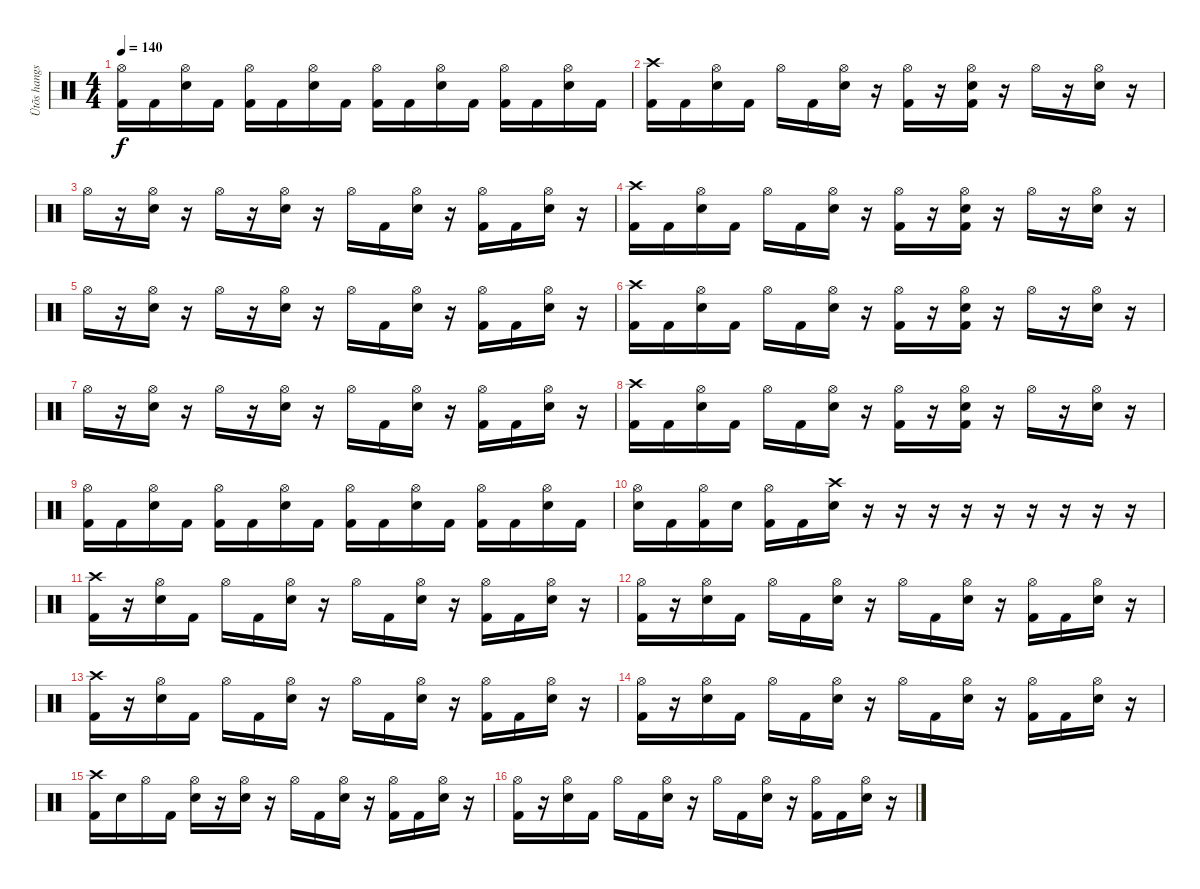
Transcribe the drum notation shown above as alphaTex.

\track ("Ütõs hangszer" "Ütõs hangs") {instrument percussion}
\staff {score}
\articulation defaults
\ts (4 4)
\tempo 140
\clef neutral
\ks c
("Hi-Hat (open)" "Kick (hit) 2").16{dy f} "Kick (hit) 2".16 ("Hi-Hat (open)" "Snare (hit) 2").16 "Kick (hit) 2".16 ("Hi-Hat (open)" "Kick (hit) 2").16 "Kick (hit) 2".16 ("Hi-Hat (open)" "Snare (hit) 2").16 "Kick (hit) 2".16 ("Hi-Hat (open)" "Kick (hit) 2").16 "Kick (hit) 2".16 ("Hi-Hat (open)" "Snare (hit) 2").16 "Kick (hit) 2".16 ("Hi-Hat (open)" "Kick (hit) 2").16 "Kick (hit) 2".16 ("Hi-Hat (open)" "Snare (hit) 2").16 "Kick (hit) 2".16 |
("Crash high (hit)" "Kick (hit) 2").16 "Kick (hit) 2".16 ("Hi-Hat (open)" "Snare (hit) 2").16 "Kick (hit) 2".16 "Hi-Hat (open)".16 "Kick (hit) 2".16 ("Hi-Hat (open)" "Snare (hit) 2").16 r.16 ("Hi-Hat (open)" "Kick (hit) 2").16 r.16 ("Hi-Hat (open)" "Snare (hit) 2" "Kick (hit) 2").16 r.16 "Hi-Hat (open)".16 r.16 ("Hi-Hat (open)" "Snare (hit) 2").16 r.16 |
"Hi-Hat (open)".16 r.16 ("Hi-Hat (open)" "Snare (hit) 2").16 r.16 "Hi-Hat (open)".16 r.16 ("Hi-Hat (open)" "Snare (hit) 2").16 r.16 "Hi-Hat (open)".16 "Kick (hit) 2".16 ("Hi-Hat (open)" "Snare (hit) 2").16 r.16 ("Hi-Hat (open)" "Kick (hit) 2").16 "Kick (hit) 2".16 ("Hi-Hat (open)" "Snare (hit) 2").16 r.16 |
("Crash high (hit)" "Kick (hit) 2").16 "Kick (hit) 2".16 ("Hi-Hat (open)" "Snare (hit) 2").16 "Kick (hit) 2".16 "Hi-Hat (open)".16 "Kick (hit) 2".16 ("Hi-Hat (open)" "Snare (hit) 2").16 r.16 ("Hi-Hat (open)" "Kick (hit) 2").16 r.16 ("Hi-Hat (open)" "Snare (hit) 2" "Kick (hit) 2").16 r.16 "Hi-Hat (open)".16 r.16 ("Hi-Hat (open)" "Snare (hit) 2").16 r.16 |
"Hi-Hat (open)".16 r.16 ("Hi-Hat (open)" "Snare (hit) 2").16 r.16 "Hi-Hat (open)".16 r.16 ("Hi-Hat (open)" "Snare (hit) 2").16 r.16 "Hi-Hat (open)".16 "Kick (hit) 2".16 ("Hi-Hat (open)" "Snare (hit) 2").16 r.16 ("Hi-Hat (open)" "Kick (hit) 2").16 "Kick (hit) 2".16 ("Hi-Hat (open)" "Snare (hit) 2").16 r.16 |
("Crash high (hit)" "Kick (hit) 2").16 "Kick (hit) 2".16 ("Hi-Hat (open)" "Snare (hit) 2").16 "Kick (hit) 2".16 "Hi-Hat (open)".16 "Kick (hit) 2".16 ("Hi-Hat (open)" "Snare (hit) 2").16 r.16 ("Hi-Hat (open)" "Kick (hit) 2").16 r.16 ("Hi-Hat (open)" "Snare (hit) 2" "Kick (hit) 2").16 r.16 "Hi-Hat (open)".16 r.16 ("Hi-Hat (open)" "Snare (hit) 2").16 r.16 |
"Hi-Hat (open)".16 r.16 ("Hi-Hat (open)" "Snare (hit) 2").16 r.16 "Hi-Hat (open)".16 r.16 ("Hi-Hat (open)" "Snare (hit) 2").16 r.16 "Hi-Hat (open)".16 "Kick (hit) 2".16 ("Hi-Hat (open)" "Snare (hit) 2").16 r.16 ("Hi-Hat (open)" "Kick (hit) 2").16 "Kick (hit) 2".16 ("Hi-Hat (open)" "Snare (hit) 2").16 r.16 |
("Crash high (hit)" "Kick (hit) 2").16 "Kick (hit) 2".16 ("Hi-Hat (open)" "Snare (hit) 2").16 "Kick (hit) 2".16 "Hi-Hat (open)".16 "Kick (hit) 2".16 ("Hi-Hat (open)" "Snare (hit) 2").16 r.16 ("Hi-Hat (open)" "Kick (hit) 2").16 r.16 ("Hi-Hat (open)" "Snare (hit) 2" "Kick (hit) 2").16 r.16 "Hi-Hat (open)".16 r.16 ("Hi-Hat (open)" "Snare (hit) 2").16 r.16 |
("Hi-Hat (open)" "Kick (hit) 2").16 "Kick (hit) 2".16 ("Hi-Hat (open)" "Snare (hit) 2").16 "Kick (hit) 2".16 ("Hi-Hat (open)" "Kick (hit) 2").16 "Kick (hit) 2".16 ("Hi-Hat (open)" "Snare (hit) 2").16 "Kick (hit) 2".16 ("Hi-Hat (open)" "Kick (hit) 2").16 "Kick (hit) 2".16 ("Hi-Hat (open)" "Snare (hit) 2").16 "Kick (hit) 2".16 ("Hi-Hat (open)" "Kick (hit) 2").16 "Kick (hit) 2".16 ("Hi-Hat (open)" "Snare (hit) 2").16 "Kick (hit) 2".16 |
("Hi-Hat (open)" "Snare (hit) 2").16 "Kick (hit) 2".16 ("Hi-Hat (open)" "Kick (hit) 2").16 "Snare (hit) 2".16 ("Hi-Hat (open)" "Kick (hit) 2").16 "Kick (hit) 2".16 ("Crash high (hit)" "Snare (hit) 2").16 r.16 r.16 r.16 r.16 r.16 r.16 r.16 r.16 r.16 |
("Crash high (hit)" "Kick (hit) 2").16 r.16 ("Hi-Hat (open)" "Snare (hit) 2").16 "Kick (hit) 2".16 "Hi-Hat (open)".16 "Kick (hit) 2".16 ("Hi-Hat (open)" "Snare (hit) 2").16 r.16 "Hi-Hat (open)".16 "Kick (hit) 2".16 ("Hi-Hat (open)" "Snare (hit) 2").16 r.16 ("Hi-Hat (open)" "Kick (hit) 2").16 "Kick (hit) 2".16 ("Hi-Hat (open)" "Snare (hit) 2").16 r.16 |
("Hi-Hat (open)" "Kick (hit) 2").16 r.16 ("Hi-Hat (open)" "Snare (hit) 2").16 "Kick (hit) 2".16 "Hi-Hat (open)".16 "Kick (hit) 2".16 ("Hi-Hat (open)" "Snare (hit) 2").16 r.16 "Hi-Hat (open)".16 "Kick (hit) 2".16 ("Hi-Hat (open)" "Snare (hit) 2").16 r.16 ("Hi-Hat (open)" "Kick (hit) 2").16 "Kick (hit) 2".16 ("Hi-Hat (open)" "Snare (hit) 2").16 r.16 |
("Crash high (hit)" "Kick (hit) 2").16 r.16 ("Hi-Hat (open)" "Snare (hit) 2").16 "Kick (hit) 2".16 "Hi-Hat (open)".16 "Kick (hit) 2".16 ("Hi-Hat (open)" "Snare (hit) 2").16 r.16 "Hi-Hat (open)".16 "Kick (hit) 2".16 ("Hi-Hat (open)" "Snare (hit) 2").16 r.16 ("Hi-Hat (open)" "Kick (hit) 2").16 "Kick (hit) 2".16 ("Hi-Hat (open)" "Snare (hit) 2").16 r.16 |
("Hi-Hat (open)" "Kick (hit) 2").16 r.16 ("Hi-Hat (open)" "Snare (hit) 2").16 "Kick (hit) 2".16 "Hi-Hat (open)".16 "Kick (hit) 2".16 ("Hi-Hat (open)" "Snare (hit) 2").16 r.16 "Hi-Hat (open)".16 "Kick (hit) 2".16 ("Hi-Hat (open)" "Snare (hit) 2").16 r.16 ("Hi-Hat (open)" "Kick (hit) 2").16 "Kick (hit) 2".16 ("Hi-Hat (open)" "Snare (hit) 2").16 r.16 |
("Crash high (hit)" "Kick (hit) 2").16 "Snare (hit) 2".16 "Hi-Hat (open)".16 "Kick (hit) 2".16 ("Hi-Hat (open)" "Snare (hit) 2").16 r.16 ("Hi-Hat (open)" "Snare (hit) 2").16 r.16 "Hi-Hat (open)".16 "Kick (hit) 2".16 ("Hi-Hat (open)" "Snare (hit) 2").16 r.16 ("Hi-Hat (open)" "Kick (hit) 2").16 "Kick (hit) 2".16 ("Hi-Hat (open)" "Snare (hit) 2").16 r.16 |
("Hi-Hat (open)" "Kick (hit) 2").16 r.16 ("Hi-Hat (open)" "Snare (hit) 2").16 "Kick (hit) 2".16 "Hi-Hat (open)".16 "Kick (hit) 2".16 ("Hi-Hat (open)" "Snare (hit) 2").16 r.16 "Hi-Hat (open)".16 "Kick (hit) 2".16 ("Hi-Hat (open)" "Snare (hit) 2").16 r.16 ("Hi-Hat (open)" "Kick (hit) 2").16 "Kick (hit) 2".16 ("Hi-Hat (open)" "Snare (hit) 2").16 r.16
